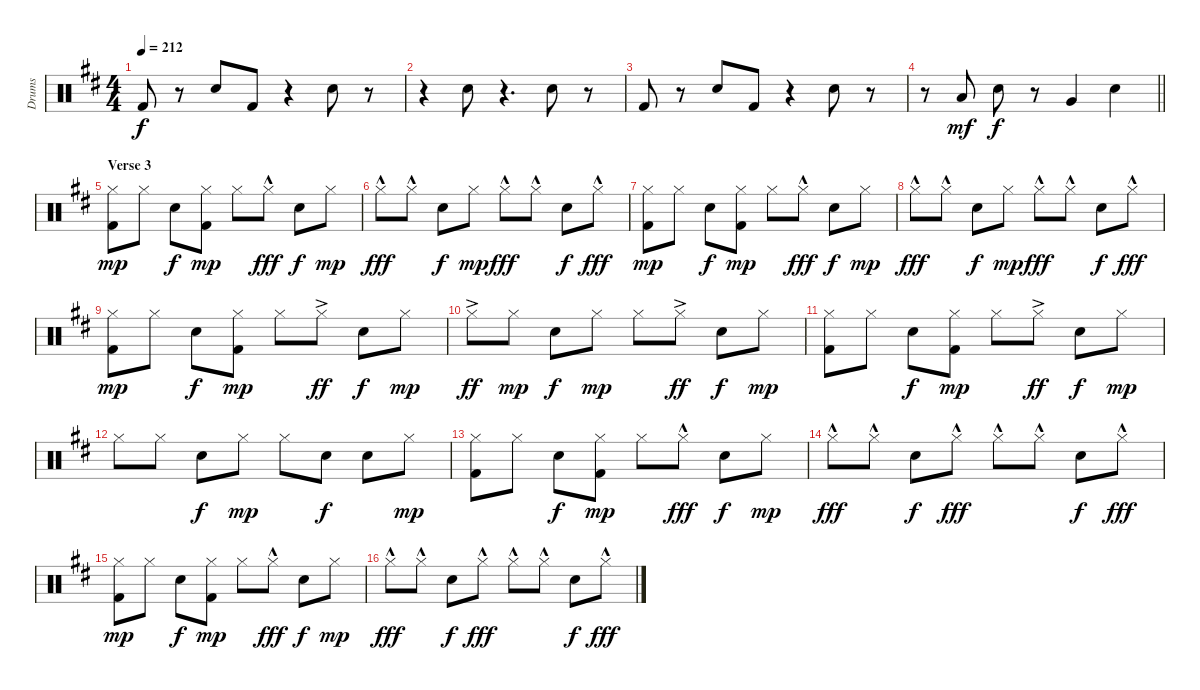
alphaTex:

\track ("Drums" "Drums") {instrument percussion}
\staff {score}
\articulation defaults
\ts (4 4)
\tempo 212
\clef neutral
\ks d "Kick (hit) 2".8{dy f}
r.8 "Electric Snare (hit)".8 "Kick (hit) 2".8 r.4 "Electric Snare (hit)".8 r.8 |
r.4 "Electric Snare (hit)".8 r.4{d} "Electric Snare (hit)".8 r.8 |
"Kick (hit) 2".8 r.8 "Electric Snare (hit)".8 "Kick (hit) 2".8 r.4 "Electric Snare (hit)".8 r.8 |
\barLineRight lightlight
r.8 "Low Tom (hit)".8{dy mf} "Electric Snare (hit)".8{dy f} r.8 "Very Low Tom (hit)".4 "Electric Snare (hit)".4 |
\section ("" "Verse 3")
("Hi-Hat (closed)" "Kick (hit) 2").8{dy mp} "Hi-Hat (closed)".8 "Electric Snare (hit)".8{dy f} ("Hi-Hat (closed)" "Kick (hit) 2").8{dy mp} "Hi-Hat (closed)".8 "Hi-Hat (closed)"{hac}.8{dy fff} "Electric Snare (hit)".8{dy f} "Hi-Hat (closed)".8{dy mp} |
"Hi-Hat (closed)"{hac}.8{dy fff} "Hi-Hat (closed)"{hac}.8 "Electric Snare (hit)".8{dy f} "Hi-Hat (closed)".8{dy mp} "Hi-Hat (closed)"{hac}.8{dy fff} "Hi-Hat (closed)"{hac}.8 "Electric Snare (hit)".8{dy f} "Hi-Hat (closed)"{hac}.8{dy fff} |
("Hi-Hat (closed)" "Kick (hit) 2").8{dy mp} "Hi-Hat (closed)".8 "Electric Snare (hit)".8{dy f} ("Hi-Hat (closed)" "Kick (hit) 2").8{dy mp} "Hi-Hat (closed)".8 "Hi-Hat (closed)"{hac}.8{dy fff} "Electric Snare (hit)".8{dy f} "Hi-Hat (closed)".8{dy mp} |
"Hi-Hat (closed)"{hac}.8{dy fff} "Hi-Hat (closed)"{hac}.8 "Electric Snare (hit)".8{dy f} "Hi-Hat (closed)".8{dy mp} "Hi-Hat (closed)"{hac}.8{dy fff} "Hi-Hat (closed)"{hac}.8 "Electric Snare (hit)".8{dy f} "Hi-Hat (closed)"{hac}.8{dy fff} |
("Hi-Hat (closed)" "Kick (hit) 2").8{dy mp} "Hi-Hat (closed)".8 "Electric Snare (hit)".8{dy f} ("Hi-Hat (closed)" "Kick (hit) 2").8{dy mp} "Hi-Hat (closed)".8 "Hi-Hat (closed)"{ac}.8{dy ff} "Electric Snare (hit)".8{dy f} "Hi-Hat (closed)".8{dy mp} |
"Hi-Hat (closed)"{ac}.8{dy ff} "Hi-Hat (closed)".8{dy mp} "Electric Snare (hit)".8{dy f} "Hi-Hat (closed)".8{dy mp} "Hi-Hat (closed)".8 "Hi-Hat (closed)"{ac}.8{dy ff} "Electric Snare (hit)".8{dy f} "Hi-Hat (closed)".8{dy mp} |
("Hi-Hat (closed)" "Kick (hit) 2").8 "Hi-Hat (closed)".8 "Electric Snare (hit)".8{dy f} ("Hi-Hat (closed)" "Kick (hit) 2").8{dy mp} "Hi-Hat (closed)".8 "Hi-Hat (closed)"{ac}.8{dy ff} "Electric Snare (hit)".8{dy f} "Hi-Hat (closed)".8{dy mp} |
"Hi-Hat (closed)".8 "Hi-Hat (closed)".8 "Electric Snare (hit)".8{dy f} "Hi-Hat (closed)".8{dy mp} "Hi-Hat (closed)".8 "Electric Snare (hit)".8{dy f} "Electric Snare (hit)".8 "Hi-Hat (closed)".8{dy mp} |
("Hi-Hat (closed)" "Kick (hit) 2").8 "Hi-Hat (closed)".8 "Electric Snare (hit)".8{dy f} ("Hi-Hat (closed)" "Kick (hit) 2").8{dy mp} "Hi-Hat (closed)".8 "Hi-Hat (closed)"{hac}.8{dy fff} "Electric Snare (hit)".8{dy f} "Hi-Hat (closed)".8{dy mp} |
"Hi-Hat (closed)"{hac}.8{dy fff} "Hi-Hat (closed)"{hac}.8 "Electric Snare (hit)".8{dy f} "Hi-Hat (closed)"{hac}.8{dy fff} "Hi-Hat (closed)"{hac}.8 "Hi-Hat (closed)"{hac}.8 "Electric Snare (hit)".8{dy f} "Hi-Hat (closed)"{hac}.8{dy fff} |
("Hi-Hat (closed)" "Kick (hit) 2").8{dy mp} "Hi-Hat (closed)".8 "Electric Snare (hit)".8{dy f} ("Hi-Hat (closed)" "Kick (hit) 2").8{dy mp} "Hi-Hat (closed)".8 "Hi-Hat (closed)"{hac}.8{dy fff} "Electric Snare (hit)".8{dy f} "Hi-Hat (closed)".8{dy mp} |
"Hi-Hat (closed)"{hac}.8{dy fff} "Hi-Hat (closed)"{hac}.8 "Electric Snare (hit)".8{dy f} "Hi-Hat (closed)"{hac}.8{dy fff} "Hi-Hat (closed)"{hac}.8 "Hi-Hat (closed)"{hac}.8 "Electric Snare (hit)".8{dy f} "Hi-Hat (closed)"{hac}.8{dy fff}
